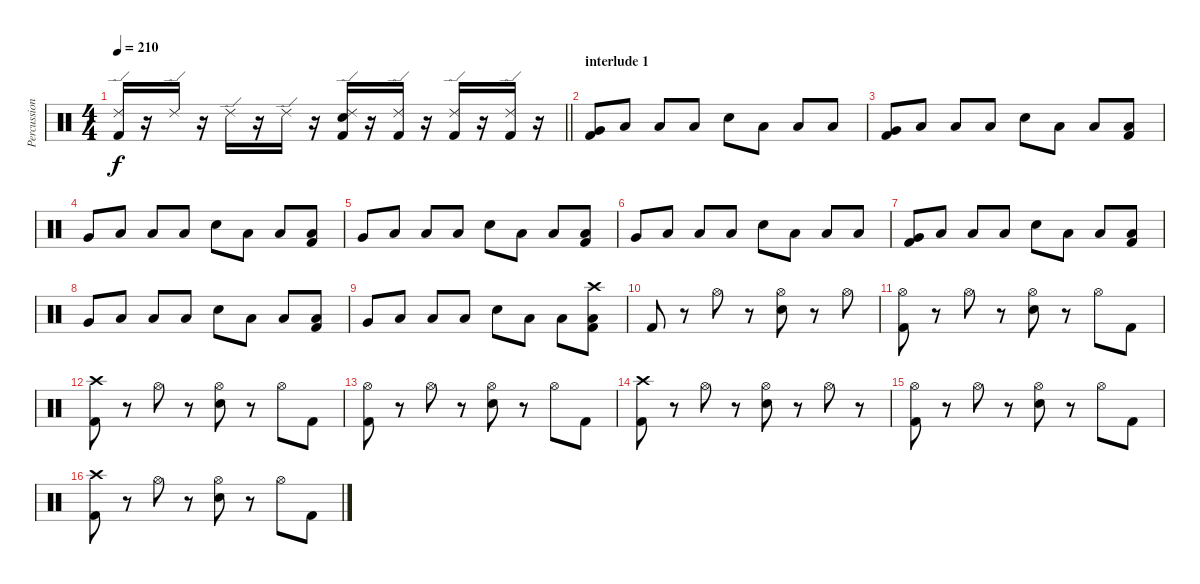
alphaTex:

\track ("Percussion" "Percussion") {instrument percussion}
\staff {score}
\articulation defaults
\ts (4 4)
\tempo 210
\clef neutral
\barLineRight lightlight
\ks c
("Ride (edge) 2" "Kick (hit) 2").16{dy f} r.16 "Ride (edge) 2".16 r.16 "Ride (edge) 2".16 r.16 "Ride (edge) 2".16 r.16 ("Ride (edge) 2" "Snare (hit) 2" "Kick (hit) 2").16 r.16 ("Ride (edge) 2" "Kick (hit) 2").16 r.16 ("Ride (edge) 2" "Kick (hit) 2").16 r.16 ("Ride (edge) 2" "Kick (hit) 2").16 r.16 |
\section ("" "interlude 1")
("Very Low Tom (hit)" "Kick (hit) 2").8 "Low Floor Tom (hit)".8 "Low Floor Tom (hit)".8 "Low Floor Tom (hit)".8 "Snare (hit) 2".8 "Low Floor Tom (hit)".8 "Low Floor Tom (hit)".8 "Low Floor Tom (hit)".8 |
("Very Low Tom (hit)" "Kick (hit) 2").8 "Low Floor Tom (hit)".8 "Low Floor Tom (hit)".8 "Low Floor Tom (hit)".8 "Snare (hit) 2".8 "Low Floor Tom (hit)".8 "Low Floor Tom (hit)".8 ("Low Floor Tom (hit)" "Kick (hit) 2").8 |
"Very Low Tom (hit)".8 "Low Floor Tom (hit)".8 "Low Floor Tom (hit)".8 "Low Floor Tom (hit)".8 "Snare (hit) 2".8 "Low Floor Tom (hit)".8 "Low Floor Tom (hit)".8 ("Low Floor Tom (hit)" "Kick (hit) 2").8 |
"Very Low Tom (hit)".8 "Low Floor Tom (hit)".8 "Low Floor Tom (hit)".8 "Low Floor Tom (hit)".8 "Snare (hit) 2".8 "Low Floor Tom (hit)".8 "Low Floor Tom (hit)".8 ("Low Floor Tom (hit)" "Kick (hit) 2").8 |
"Very Low Tom (hit)".8 "Low Floor Tom (hit)".8 "Low Floor Tom (hit)".8 "Low Floor Tom (hit)".8 "Snare (hit) 2".8 "Low Floor Tom (hit)".8 "Low Floor Tom (hit)".8 "Low Floor Tom (hit)".8 |
("Very Low Tom (hit)" "Kick (hit) 2").8 "Low Floor Tom (hit)".8 "Low Floor Tom (hit)".8 "Low Floor Tom (hit)".8 "Snare (hit) 2".8 "Low Floor Tom (hit)".8 "Low Floor Tom (hit)".8 ("Low Floor Tom (hit)" "Kick (hit) 2").8 |
"Very Low Tom (hit)".8 "Low Floor Tom (hit)".8 "Low Floor Tom (hit)".8 "Low Floor Tom (hit)".8 "Snare (hit) 2".8 "Low Floor Tom (hit)".8 "Low Floor Tom (hit)".8 ("Low Floor Tom (hit)" "Kick (hit) 2").8 |
"Very Low Tom (hit)".8 "Low Floor Tom (hit)".8 "Low Floor Tom (hit)".8 "Low Floor Tom (hit)".8 "Snare (hit) 2".8 "Low Floor Tom (hit)".8 "Low Floor Tom (hit)".8 ("Crash high (hit)" "Low Floor Tom (hit)" "Kick (hit) 2").8 |
"Kick (hit) 2".8 r.8 "Hi-Hat (open)".8 r.8 ("Hi-Hat (open)" "Snare (hit) 2").8 r.8 "Hi-Hat (open)".8 |
("Hi-Hat (open)" "Kick (hit) 2").8 r.8 "Hi-Hat (open)".8 r.8 ("Hi-Hat (open)" "Snare (hit) 2").8 r.8 "Hi-Hat (open)".8 "Kick (hit) 2".8 |
("Crash high (hit)" "Kick (hit) 2").8 r.8 "Hi-Hat (open)".8 r.8 ("Hi-Hat (open)" "Snare (hit) 2").8 r.8 "Hi-Hat (open)".8 "Kick (hit) 2".8 |
("Hi-Hat (open)" "Kick (hit) 2").8 r.8 "Hi-Hat (open)".8 r.8 ("Hi-Hat (open)" "Snare (hit) 2").8 r.8 "Hi-Hat (open)".8 "Kick (hit) 2".8 |
("Crash high (hit)" "Kick (hit) 2").8 r.8 "Hi-Hat (open)".8 r.8 ("Hi-Hat (open)" "Snare (hit) 2").8 r.8 "Hi-Hat (open)".8 r.8 |
("Hi-Hat (open)" "Kick (hit) 2").8 r.8 "Hi-Hat (open)".8 r.8 ("Hi-Hat (open)" "Snare (hit) 2").8 r.8 "Hi-Hat (open)".8 "Kick (hit) 2".8 |
("Crash high (hit)" "Kick (hit) 2").8 r.8 "Hi-Hat (open)".8 r.8 ("Hi-Hat (open)" "Snare (hit) 2").8 r.8 "Hi-Hat (open)".8 "Kick (hit) 2".8
